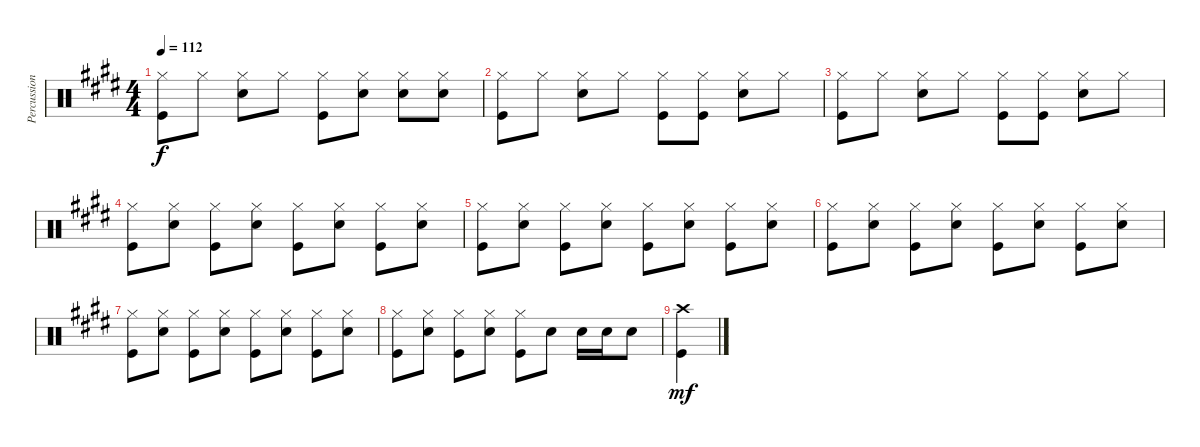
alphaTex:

\track ("Percussion" "Percussion") {instrument percussion}
\staff {score}
\articulation defaults
\ts (4 4)
\tempo 112
\clef neutral
\ks e
("Hi-Hat (closed)" "Kick (hit)").8{dy f} "Hi-Hat (closed)".8 ("Hi-Hat (closed)" "Snare (hit) 2").8 "Hi-Hat (closed)".8 ("Hi-Hat (closed)" "Kick (hit)").8 ("Hi-Hat (closed)" "Snare (hit) 2").8 ("Hi-Hat (closed)" "Snare (hit) 2").8 ("Hi-Hat (closed)" "Snare (hit) 2").8 |
("Hi-Hat (closed)" "Kick (hit)").8 "Hi-Hat (closed)".8 ("Hi-Hat (closed)" "Snare (hit) 2").8 "Hi-Hat (closed)".8 ("Hi-Hat (closed)" "Kick (hit)").8 ("Hi-Hat (closed)" "Kick (hit)").8 ("Hi-Hat (closed)" "Snare (hit) 2").8 "Hi-Hat (closed)".8 |
("Hi-Hat (closed)" "Kick (hit)").8 "Hi-Hat (closed)".8 ("Hi-Hat (closed)" "Snare (hit) 2").8 "Hi-Hat (closed)".8 ("Hi-Hat (closed)" "Kick (hit)").8 ("Hi-Hat (closed)" "Kick (hit)").8 ("Hi-Hat (closed)" "Snare (hit) 2").8 "Hi-Hat (closed)".8 |
("Hi-Hat (closed)" "Kick (hit)").8 ("Hi-Hat (closed)" "Snare (hit) 2").8 ("Hi-Hat (closed)" "Kick (hit)").8 ("Hi-Hat (closed)" "Snare (hit) 2").8 ("Hi-Hat (closed)" "Kick (hit)").8 ("Hi-Hat (closed)" "Snare (hit) 2").8 ("Hi-Hat (closed)" "Kick (hit)").8 ("Hi-Hat (closed)" "Snare (hit) 2").8 |
("Hi-Hat (closed)" "Kick (hit)").8 ("Hi-Hat (closed)" "Snare (hit) 2").8 ("Hi-Hat (closed)" "Kick (hit)").8 ("Hi-Hat (closed)" "Snare (hit) 2").8 ("Hi-Hat (closed)" "Kick (hit)").8 ("Hi-Hat (closed)" "Snare (hit) 2").8 ("Hi-Hat (closed)" "Kick (hit)").8 ("Hi-Hat (closed)" "Snare (hit) 2").8 |
("Hi-Hat (closed)" "Kick (hit)").8 ("Hi-Hat (closed)" "Snare (hit) 2").8 ("Hi-Hat (closed)" "Kick (hit)").8 ("Hi-Hat (closed)" "Snare (hit) 2").8 ("Hi-Hat (closed)" "Kick (hit)").8 ("Hi-Hat (closed)" "Snare (hit) 2").8 ("Hi-Hat (closed)" "Kick (hit)").8 ("Hi-Hat (closed)" "Snare (hit) 2").8 |
("Hi-Hat (closed)" "Kick (hit)").8 ("Hi-Hat (closed)" "Snare (hit) 2").8 ("Hi-Hat (closed)" "Kick (hit)").8 ("Hi-Hat (closed)" "Snare (hit) 2").8 ("Hi-Hat (closed)" "Kick (hit)").8 ("Hi-Hat (closed)" "Snare (hit) 2").8 ("Hi-Hat (closed)" "Kick (hit)").8 ("Hi-Hat (closed)" "Snare (hit) 2").8 |
("Hi-Hat (closed)" "Kick (hit)").8 ("Hi-Hat (closed)" "Snare (hit) 2").8 ("Hi-Hat (closed)" "Kick (hit)").8 ("Hi-Hat (closed)" "Snare (hit) 2").8 ("Hi-Hat (closed)" "Kick (hit)").8 "Snare (hit) 2".8 "Snare (hit) 2".16 "Snare (hit) 2".16 "Snare (hit) 2".8 |
("Crash high (hit)" "Kick (hit)").4{dy mf}
